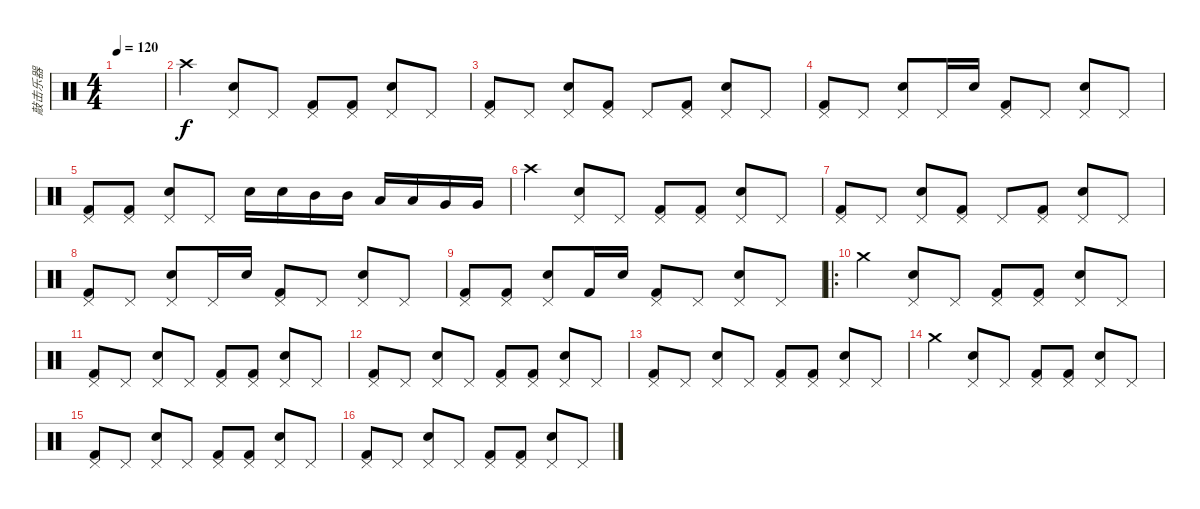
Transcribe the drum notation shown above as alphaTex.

\track ("敲击乐器" "敲击乐器") {instrument percussion}
\staff {score}
\articulation defaults
\ts (4 4)
\tempo 120
\clef neutral
\ks c
|
"Crash high (hit)".4 ("Electric Snare (hit)" "Pedal Hi-Hat (hit)").8 "Pedal Hi-Hat (hit)".8 ("Kick (hit) 2" "Pedal Hi-Hat (hit)").8 ("Kick (hit) 2" "Pedal Hi-Hat (hit)").8 ("Electric Snare (hit)" "Pedal Hi-Hat (hit)").8 "Pedal Hi-Hat (hit)".8 |
("Kick (hit) 2" "Pedal Hi-Hat (hit)").8 "Pedal Hi-Hat (hit)".8 ("Electric Snare (hit)" "Pedal Hi-Hat (hit)").8 ("Kick (hit) 2" "Pedal Hi-Hat (hit)").8 "Pedal Hi-Hat (hit)".8 ("Kick (hit) 2" "Pedal Hi-Hat (hit)").8 ("Electric Snare (hit)" "Pedal Hi-Hat (hit)").8 "Pedal Hi-Hat (hit)".8 |
("Kick (hit) 2" "Pedal Hi-Hat (hit)").8 "Pedal Hi-Hat (hit)".8 ("Electric Snare (hit)" "Pedal Hi-Hat (hit)").8 "Pedal Hi-Hat (hit)".16 "Electric Snare (hit)".16 ("Kick (hit) 2" "Pedal Hi-Hat (hit)").8 "Pedal Hi-Hat (hit)".8 ("Electric Snare (hit)" "Pedal Hi-Hat (hit)").8 "Pedal Hi-Hat (hit)".8 |
("Kick (hit) 2" "Pedal Hi-Hat (hit)").8 ("Kick (hit) 2" "Pedal Hi-Hat (hit)").8 ("Electric Snare (hit)" "Pedal Hi-Hat (hit)").8 "Pedal Hi-Hat (hit)".8 "Electric Snare (hit)".16 "Electric Snare (hit)".16 "Mid Tom (hit)".16 "Mid Tom (hit)".16 "Low Tom (hit)".16 "Low Tom (hit)".16 "Very Low Tom (hit)".16 "Very Low Tom (hit)".16 |
"Crash high (hit)".4 ("Electric Snare (hit)" "Pedal Hi-Hat (hit)").8 "Pedal Hi-Hat (hit)".8 ("Kick (hit) 2" "Pedal Hi-Hat (hit)").8 ("Kick (hit) 2" "Pedal Hi-Hat (hit)").8 ("Electric Snare (hit)" "Pedal Hi-Hat (hit)").8 "Pedal Hi-Hat (hit)".8 |
("Kick (hit) 2" "Pedal Hi-Hat (hit)").8 "Pedal Hi-Hat (hit)".8 ("Electric Snare (hit)" "Pedal Hi-Hat (hit)").8 ("Kick (hit) 2" "Pedal Hi-Hat (hit)").8 "Pedal Hi-Hat (hit)".8 ("Kick (hit) 2" "Pedal Hi-Hat (hit)").8 ("Electric Snare (hit)" "Pedal Hi-Hat (hit)").8 "Pedal Hi-Hat (hit)".8 |
("Kick (hit) 2" "Pedal Hi-Hat (hit)").8 "Pedal Hi-Hat (hit)".8 ("Electric Snare (hit)" "Pedal Hi-Hat (hit)").8 "Pedal Hi-Hat (hit)".16 "Electric Snare (hit)".16 ("Kick (hit) 2" "Pedal Hi-Hat (hit)").8 "Pedal Hi-Hat (hit)".8 ("Electric Snare (hit)" "Pedal Hi-Hat (hit)").8 "Pedal Hi-Hat (hit)".8 |
("Kick (hit) 2" "Pedal Hi-Hat (hit)").8 ("Kick (hit) 2" "Pedal Hi-Hat (hit)").8 ("Electric Snare (hit)" "Pedal Hi-Hat (hit)").8 "Kick (hit) 2".16 "Electric Snare (hit)".16 ("Kick (hit) 2" "Pedal Hi-Hat (hit)").8 "Pedal Hi-Hat (hit)".8 ("Electric Snare (hit)" "Pedal Hi-Hat (hit)").8 "Pedal Hi-Hat (hit)".8 |
\ro "Crash medium (hit)".4
("Electric Snare (hit)" "Pedal Hi-Hat (hit)").8 "Pedal Hi-Hat (hit)".8 ("Kick (hit) 2" "Pedal Hi-Hat (hit)").8 ("Kick (hit) 2" "Pedal Hi-Hat (hit)").8 ("Electric Snare (hit)" "Pedal Hi-Hat (hit)").8 "Pedal Hi-Hat (hit)".8 |
("Kick (hit) 2" "Pedal Hi-Hat (hit)").8 "Pedal Hi-Hat (hit)".8 ("Electric Snare (hit)" "Pedal Hi-Hat (hit)").8 "Pedal Hi-Hat (hit)".8 ("Kick (hit) 2" "Pedal Hi-Hat (hit)").8 ("Kick (hit) 2" "Pedal Hi-Hat (hit)").8 ("Electric Snare (hit)" "Pedal Hi-Hat (hit)").8 "Pedal Hi-Hat (hit)".8 |
("Kick (hit) 2" "Pedal Hi-Hat (hit)").8 "Pedal Hi-Hat (hit)".8 ("Electric Snare (hit)" "Pedal Hi-Hat (hit)").8 "Pedal Hi-Hat (hit)".8 ("Kick (hit) 2" "Pedal Hi-Hat (hit)").8 ("Kick (hit) 2" "Pedal Hi-Hat (hit)").8 ("Electric Snare (hit)" "Pedal Hi-Hat (hit)").8 "Pedal Hi-Hat (hit)".8 |
("Kick (hit) 2" "Pedal Hi-Hat (hit)").8 "Pedal Hi-Hat (hit)".8 ("Electric Snare (hit)" "Pedal Hi-Hat (hit)").8 "Pedal Hi-Hat (hit)".8 ("Kick (hit) 2" "Pedal Hi-Hat (hit)").8 ("Kick (hit) 2" "Pedal Hi-Hat (hit)").8 ("Electric Snare (hit)" "Pedal Hi-Hat (hit)").8 "Pedal Hi-Hat (hit)".8 |
"Crash medium (hit)".4 ("Electric Snare (hit)" "Pedal Hi-Hat (hit)").8 "Pedal Hi-Hat (hit)".8 ("Kick (hit) 2" "Pedal Hi-Hat (hit)").8 ("Kick (hit) 2" "Pedal Hi-Hat (hit)").8 ("Electric Snare (hit)" "Pedal Hi-Hat (hit)").8 "Pedal Hi-Hat (hit)".8 |
("Kick (hit) 2" "Pedal Hi-Hat (hit)").8 "Pedal Hi-Hat (hit)".8 ("Electric Snare (hit)" "Pedal Hi-Hat (hit)").8 "Pedal Hi-Hat (hit)".8 ("Kick (hit) 2" "Pedal Hi-Hat (hit)").8 ("Kick (hit) 2" "Pedal Hi-Hat (hit)").8 ("Electric Snare (hit)" "Pedal Hi-Hat (hit)").8 "Pedal Hi-Hat (hit)".8 |
("Kick (hit) 2" "Pedal Hi-Hat (hit)").8 "Pedal Hi-Hat (hit)".8 ("Electric Snare (hit)" "Pedal Hi-Hat (hit)").8 "Pedal Hi-Hat (hit)".8 ("Kick (hit) 2" "Pedal Hi-Hat (hit)").8 ("Kick (hit) 2" "Pedal Hi-Hat (hit)").8 ("Electric Snare (hit)" "Pedal Hi-Hat (hit)").8 "Pedal Hi-Hat (hit)".8
